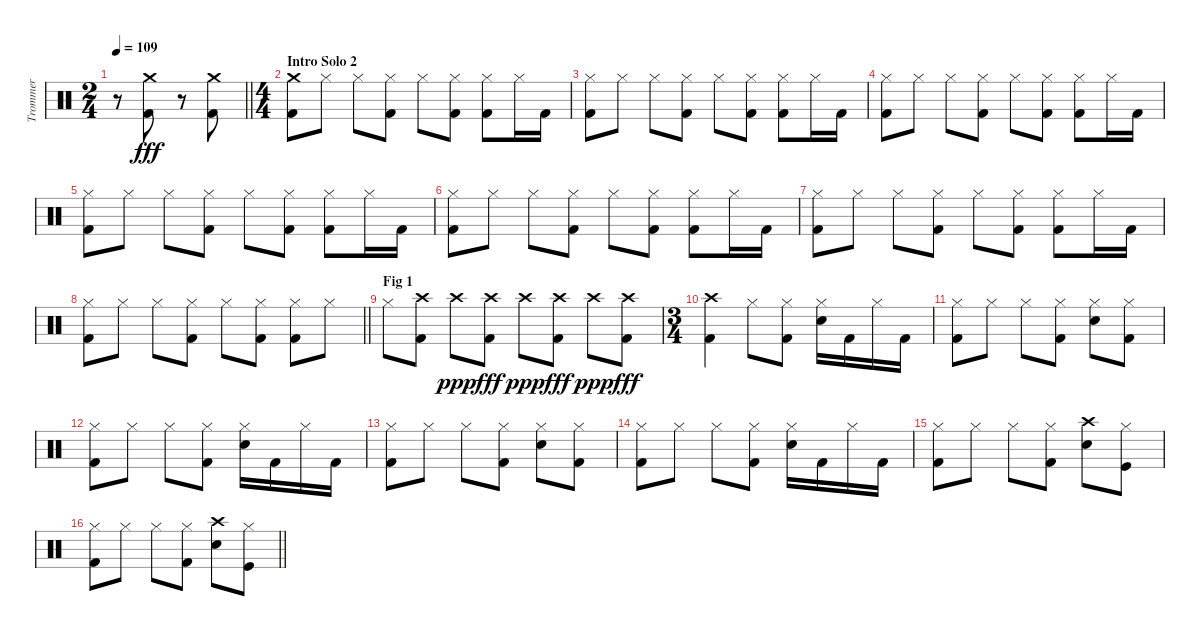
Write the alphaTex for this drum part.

\track ("Trommer" "Trommer") {instrument percussion}
\staff {score}
\articulation defaults
\ts (2 4)
\section ("" "")
\tempo 109
\clef neutral
\barLineRight lightlight
\ks c
r.8{dy fff} ("Crash medium (hit)" "Kick (hit) 2").8 r.8 ("Crash medium (hit)" "Kick (hit) 2").8 |
\ts (4 4)
\section ("" "Intro Solo 2")
("Crash medium (hit)" "Kick (hit) 2").8 "Hi-Hat (closed)".8 "Hi-Hat (closed)".8 ("Hi-Hat (closed)" "Kick (hit) 2").8 "Hi-Hat (closed)".8 ("Hi-Hat (closed)" "Kick (hit) 2").8 ("Hi-Hat (closed)" "Kick (hit) 2").8 "Hi-Hat (closed)".16 "Kick (hit) 2".16 |
("Hi-Hat (closed)" "Kick (hit) 2").8 "Hi-Hat (closed)".8 "Hi-Hat (closed)".8 ("Hi-Hat (closed)" "Kick (hit) 2").8 "Hi-Hat (closed)".8 ("Hi-Hat (closed)" "Kick (hit) 2").8 ("Hi-Hat (closed)" "Kick (hit) 2").8 "Hi-Hat (closed)".16 "Kick (hit) 2".16 |
("Hi-Hat (closed)" "Kick (hit) 2").8 "Hi-Hat (closed)".8 "Hi-Hat (closed)".8 ("Hi-Hat (closed)" "Kick (hit) 2").8 "Hi-Hat (closed)".8 ("Hi-Hat (closed)" "Kick (hit) 2").8 ("Hi-Hat (closed)" "Kick (hit) 2").8 "Hi-Hat (closed)".16 "Kick (hit) 2".16 |
("Hi-Hat (closed)" "Kick (hit) 2").8 "Hi-Hat (closed)".8 "Hi-Hat (closed)".8 ("Hi-Hat (closed)" "Kick (hit) 2").8 "Hi-Hat (closed)".8 ("Hi-Hat (closed)" "Kick (hit) 2").8 ("Hi-Hat (closed)" "Kick (hit) 2").8 "Hi-Hat (closed)".16 "Kick (hit) 2".16 |
("Hi-Hat (closed)" "Kick (hit) 2").8 "Hi-Hat (closed)".8 "Hi-Hat (closed)".8 ("Hi-Hat (closed)" "Kick (hit) 2").8 "Hi-Hat (closed)".8 ("Hi-Hat (closed)" "Kick (hit) 2").8 ("Hi-Hat (closed)" "Kick (hit) 2").8 "Hi-Hat (closed)".16 "Kick (hit) 2".16 |
("Hi-Hat (closed)" "Kick (hit) 2").8 "Hi-Hat (closed)".8 "Hi-Hat (closed)".8 ("Hi-Hat (closed)" "Kick (hit) 2").8 "Hi-Hat (closed)".8 ("Hi-Hat (closed)" "Kick (hit) 2").8 ("Hi-Hat (closed)" "Kick (hit) 2").8 "Hi-Hat (closed)".16 "Kick (hit) 2".16 |
\barLineRight lightlight
("Hi-Hat (closed)" "Kick (hit) 2").8 "Hi-Hat (closed)".8 "Hi-Hat (closed)".8 ("Hi-Hat (closed)" "Kick (hit) 2").8 "Hi-Hat (closed)".8 ("Hi-Hat (closed)" "Kick (hit) 2").8 ("Hi-Hat (closed)" "Kick (hit) 2").8 "Hi-Hat (closed)".8 |
\section ("" "Fig 1")
"Hi-Hat (closed)".8 ("Crash high (hit)" "Kick (hit) 2").8 "Crash high (hit)".8{dy ppp} ("Crash high (hit)" "Kick (hit) 2").8{dy fff} "Crash high (hit)".8{dy ppp} ("Crash high (hit)" "Kick (hit) 2").8{dy fff} "Crash high (hit)".8{dy ppp} ("Crash high (hit)" "Kick (hit) 2").8{dy fff} |
\ts (3 4)
("Crash high (hit)" "Kick (hit) 2").4 "Hi-Hat (closed)".8 ("Hi-Hat (closed)" "Kick (hit) 2").8 ("Hi-Hat (closed)" "Electric Snare (hit)").16 "Kick (hit) 2".16 "Hi-Hat (closed)".16 "Kick (hit) 2".16 |
("Hi-Hat (closed)" "Kick (hit) 2").8 "Hi-Hat (closed)".8 "Hi-Hat (closed)".8 ("Hi-Hat (closed)" "Kick (hit) 2").8 ("Hi-Hat (closed)" "Electric Snare (hit)").8 ("Hi-Hat (closed)" "Kick (hit) 2").8 |
("Hi-Hat (closed)" "Kick (hit) 2").8 "Hi-Hat (closed)".8 "Hi-Hat (closed)".8 ("Hi-Hat (closed)" "Kick (hit) 2").8 ("Hi-Hat (closed)" "Electric Snare (hit)").16 "Kick (hit) 2".16 "Hi-Hat (closed)".16 "Kick (hit) 2".16 |
("Hi-Hat (closed)" "Kick (hit) 2").8 "Hi-Hat (closed)".8 "Hi-Hat (closed)".8 ("Hi-Hat (closed)" "Kick (hit) 2").8 ("Hi-Hat (closed)" "Electric Snare (hit)").8 ("Hi-Hat (closed)" "Kick (hit) 2").8 |
("Hi-Hat (closed)" "Kick (hit) 2").8 "Hi-Hat (closed)".8 "Hi-Hat (closed)".8 ("Hi-Hat (closed)" "Kick (hit) 2").8 ("Hi-Hat (closed)" "Electric Snare (hit)").16 "Kick (hit) 2".16 "Hi-Hat (closed)".16 "Kick (hit) 2".16 |
("Hi-Hat (closed)" "Kick (hit) 2").8 "Hi-Hat (closed)".8 "Hi-Hat (closed)".8 ("Hi-Hat (closed)" "Kick (hit) 2").8 ("Crash high (hit)" "Electric Snare (hit)").8 ("Hi-Hat (closed)" "Kick (hit)").8 |
\barLineRight lightlight
("Hi-Hat (closed)" "Kick (hit) 2").8 "Hi-Hat (closed)".8 "Hi-Hat (closed)".8 ("Hi-Hat (closed)" "Kick (hit) 2").8 ("Crash high (hit)" "Electric Snare (hit)").8 ("Hi-Hat (closed)" "Kick (hit)").8
